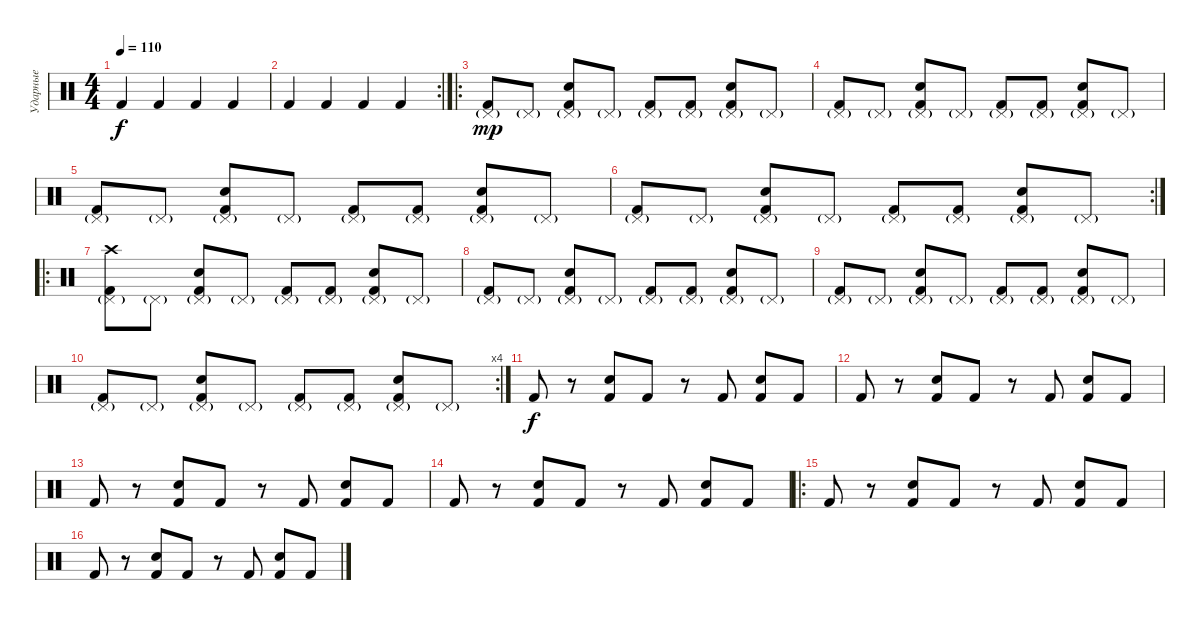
\track ("Ударные" "Ударные") {instrument percussion}
\staff {score}
\articulation defaults
\ts (4 4)
\tempo 110
\clef neutral
\ks c "Kick (hit) 2".4{dy f} "Kick (hit) 2".4 "Kick (hit) 2".4 "Kick (hit) 2".4
|
\rc 2 "Kick (hit) 2".4 "Kick (hit) 2".4 "Kick (hit) 2".4 "Kick (hit) 2".4
|
\ro
("Kick (hit) 2" "Pedal Hi-Hat (hit)"{g}).8{dy mp} "Pedal Hi-Hat (hit)"{g}.8 ("Snare (hit) 2" "Kick (hit) 2" "Pedal Hi-Hat (hit)"{g}).8 "Pedal Hi-Hat (hit)"{g}.8 ("Kick (hit) 2" "Pedal Hi-Hat (hit)"{g}).8 ("Kick (hit) 2" "Pedal Hi-Hat (hit)"{g}).8 ("Snare (hit) 2" "Kick (hit) 2" "Pedal Hi-Hat (hit)"{g}).8 "Pedal Hi-Hat (hit)"{g}.8 |
("Kick (hit) 2" "Pedal Hi-Hat (hit)"{g}).8 "Pedal Hi-Hat (hit)"{g}.8 ("Snare (hit) 2" "Kick (hit) 2" "Pedal Hi-Hat (hit)"{g}).8 "Pedal Hi-Hat (hit)"{g}.8 ("Kick (hit) 2" "Pedal Hi-Hat (hit)"{g}).8 ("Kick (hit) 2" "Pedal Hi-Hat (hit)"{g}).8 ("Snare (hit) 2" "Kick (hit) 2" "Pedal Hi-Hat (hit)"{g}).8 "Pedal Hi-Hat (hit)"{g}.8 |
("Kick (hit) 2" "Pedal Hi-Hat (hit)"{g}).8 "Pedal Hi-Hat (hit)"{g}.8 ("Snare (hit) 2" "Kick (hit) 2" "Pedal Hi-Hat (hit)"{g}).8 "Pedal Hi-Hat (hit)"{g}.8 ("Kick (hit) 2" "Pedal Hi-Hat (hit)"{g}).8 ("Kick (hit) 2" "Pedal Hi-Hat (hit)"{g}).8 ("Snare (hit) 2" "Kick (hit) 2" "Pedal Hi-Hat (hit)"{g}).8 "Pedal Hi-Hat (hit)"{g}.8 |
\rc 2
("Kick (hit) 2" "Pedal Hi-Hat (hit)"{g}).8 "Pedal Hi-Hat (hit)"{g}.8 ("Snare (hit) 2" "Kick (hit) 2" "Pedal Hi-Hat (hit)"{g}).8 "Pedal Hi-Hat (hit)"{g}.8 ("Kick (hit) 2" "Pedal Hi-Hat (hit)"{g}).8 ("Kick (hit) 2" "Pedal Hi-Hat (hit)"{g}).8 ("Snare (hit) 2" "Kick (hit) 2" "Pedal Hi-Hat (hit)"{g}).8 "Pedal Hi-Hat (hit)"{g}.8 |
\ro
("Crash high (hit)" "Kick (hit) 2" "Pedal Hi-Hat (hit)"{g}).8 "Pedal Hi-Hat (hit)"{g}.8 ("Snare (hit) 2" "Kick (hit) 2" "Pedal Hi-Hat (hit)"{g}).8 "Pedal Hi-Hat (hit)"{g}.8 ("Kick (hit) 2" "Pedal Hi-Hat (hit)"{g}).8 ("Kick (hit) 2" "Pedal Hi-Hat (hit)"{g}).8 ("Snare (hit) 2" "Kick (hit) 2" "Pedal Hi-Hat (hit)"{g}).8 "Pedal Hi-Hat (hit)"{g}.8 |
("Kick (hit) 2" "Pedal Hi-Hat (hit)"{g}).8 "Pedal Hi-Hat (hit)"{g}.8 ("Snare (hit) 2" "Kick (hit) 2" "Pedal Hi-Hat (hit)"{g}).8 "Pedal Hi-Hat (hit)"{g}.8 ("Kick (hit) 2" "Pedal Hi-Hat (hit)"{g}).8 ("Kick (hit) 2" "Pedal Hi-Hat (hit)"{g}).8 ("Snare (hit) 2" "Kick (hit) 2" "Pedal Hi-Hat (hit)"{g}).8 "Pedal Hi-Hat (hit)"{g}.8 |
("Kick (hit) 2" "Pedal Hi-Hat (hit)"{g}).8 "Pedal Hi-Hat (hit)"{g}.8 ("Snare (hit) 2" "Kick (hit) 2" "Pedal Hi-Hat (hit)"{g}).8 "Pedal Hi-Hat (hit)"{g}.8 ("Kick (hit) 2" "Pedal Hi-Hat (hit)"{g}).8 ("Kick (hit) 2" "Pedal Hi-Hat (hit)"{g}).8 ("Snare (hit) 2" "Kick (hit) 2" "Pedal Hi-Hat (hit)"{g}).8 "Pedal Hi-Hat (hit)"{g}.8 |
\rc 4
("Kick (hit) 2" "Pedal Hi-Hat (hit)"{g}).8 "Pedal Hi-Hat (hit)"{g}.8 ("Snare (hit) 2" "Kick (hit) 2" "Pedal Hi-Hat (hit)"{g}).8 "Pedal Hi-Hat (hit)"{g}.8 ("Kick (hit) 2" "Pedal Hi-Hat (hit)"{g}).8 ("Kick (hit) 2" "Pedal Hi-Hat (hit)"{g}).8 ("Snare (hit) 2" "Kick (hit) 2" "Pedal Hi-Hat (hit)"{g}).8 "Pedal Hi-Hat (hit)"{g}.8 |
"Kick (hit) 2".8{dy f} r.8 ("Snare (hit) 2" "Kick (hit) 2").8 "Kick (hit) 2".8 r.8 "Kick (hit) 2".8 ("Snare (hit) 2" "Kick (hit) 2").8 "Kick (hit) 2".8 |
"Kick (hit) 2".8 r.8 ("Snare (hit) 2" "Kick (hit) 2").8 "Kick (hit) 2".8 r.8 "Kick (hit) 2".8 ("Snare (hit) 2" "Kick (hit) 2").8 "Kick (hit) 2".8 |
"Kick (hit) 2".8 r.8 ("Snare (hit) 2" "Kick (hit) 2").8 "Kick (hit) 2".8 r.8 "Kick (hit) 2".8 ("Snare (hit) 2" "Kick (hit) 2").8 "Kick (hit) 2".8 |
"Kick (hit) 2".8 r.8 ("Snare (hit) 2" "Kick (hit) 2").8 "Kick (hit) 2".8 r.8 "Kick (hit) 2".8 ("Snare (hit) 2" "Kick (hit) 2").8 "Kick (hit) 2".8 |
\ro "Kick (hit) 2".8
r.8 ("Snare (hit) 2" "Kick (hit) 2").8 "Kick (hit) 2".8 r.8 "Kick (hit) 2".8 ("Snare (hit) 2" "Kick (hit) 2").8 "Kick (hit) 2".8 |
"Kick (hit) 2".8 r.8 ("Snare (hit) 2" "Kick (hit) 2").8 "Kick (hit) 2".8 r.8 "Kick (hit) 2".8 ("Snare (hit) 2" "Kick (hit) 2").8 "Kick (hit) 2".8
